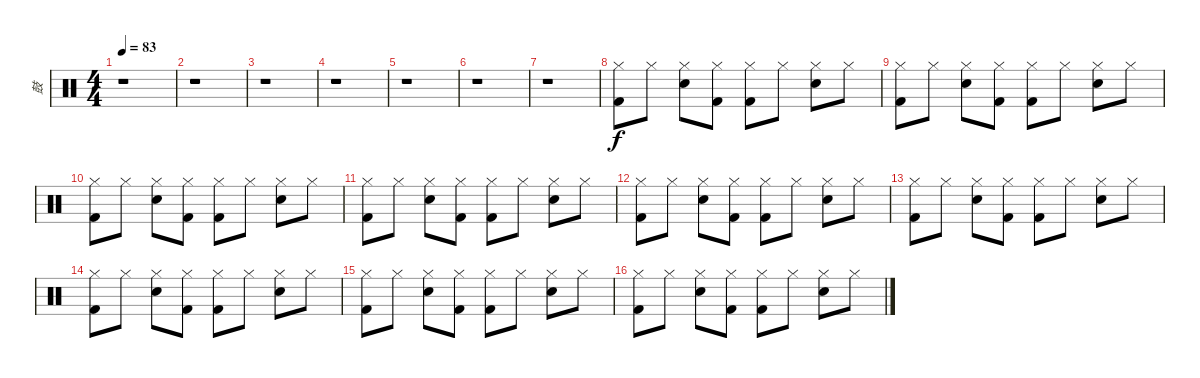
\track ("鼓" "鼓") {instrument percussion}
\staff {score}
\articulation defaults
\ts (4 4)
\tempo 83
\clef neutral
\ks c
r.1{dy f} |
r.1 |
r.1 |
r.1 |
r.1 |
r.1 |
r.1 |
("Hi-Hat (closed)" "Kick (hit) 2").8 "Hi-Hat (closed)".8 ("Snare (hit) 2" "Hi-Hat (closed)").8 ("Hi-Hat (closed)" "Kick (hit) 2").8 ("Hi-Hat (closed)" "Kick (hit) 2").8 "Hi-Hat (closed)".8 ("Snare (hit) 2" "Hi-Hat (closed)").8 "Hi-Hat (closed)".8 |
("Hi-Hat (closed)" "Kick (hit) 2").8 "Hi-Hat (closed)".8 ("Snare (hit) 2" "Hi-Hat (closed)").8 ("Hi-Hat (closed)" "Kick (hit) 2").8 ("Hi-Hat (closed)" "Kick (hit) 2").8 "Hi-Hat (closed)".8 ("Snare (hit) 2" "Hi-Hat (closed)").8 "Hi-Hat (closed)".8 |
("Hi-Hat (closed)" "Kick (hit) 2").8 "Hi-Hat (closed)".8 ("Snare (hit) 2" "Hi-Hat (closed)").8 ("Hi-Hat (closed)" "Kick (hit) 2").8 ("Hi-Hat (closed)" "Kick (hit) 2").8 "Hi-Hat (closed)".8 ("Snare (hit) 2" "Hi-Hat (closed)").8 "Hi-Hat (closed)".8 |
("Hi-Hat (closed)" "Kick (hit) 2").8 "Hi-Hat (closed)".8 ("Snare (hit) 2" "Hi-Hat (closed)").8 ("Hi-Hat (closed)" "Kick (hit) 2").8 ("Hi-Hat (closed)" "Kick (hit) 2").8 "Hi-Hat (closed)".8 ("Snare (hit) 2" "Hi-Hat (closed)").8 "Hi-Hat (closed)".8 |
("Kick (hit) 2" "Hi-Hat (closed)").8 "Hi-Hat (closed)".8 ("Hi-Hat (closed)" "Snare (hit) 2").8 ("Hi-Hat (closed)" "Kick (hit) 2").8 ("Kick (hit) 2" "Hi-Hat (closed)").8 "Hi-Hat (closed)".8 ("Hi-Hat (closed)" "Snare (hit) 2").8 "Hi-Hat (closed)".8 |
("Kick (hit) 2" "Hi-Hat (closed)").8 "Hi-Hat (closed)".8 ("Hi-Hat (closed)" "Snare (hit) 2").8 ("Hi-Hat (closed)" "Kick (hit) 2").8 ("Kick (hit) 2" "Hi-Hat (closed)").8 "Hi-Hat (closed)".8 ("Hi-Hat (closed)" "Snare (hit) 2").8 "Hi-Hat (closed)".8 |
("Kick (hit) 2" "Hi-Hat (closed)").8 "Hi-Hat (closed)".8 ("Hi-Hat (closed)" "Snare (hit) 2").8 ("Hi-Hat (closed)" "Kick (hit) 2").8 ("Kick (hit) 2" "Hi-Hat (closed)").8 "Hi-Hat (closed)".8 ("Hi-Hat (closed)" "Snare (hit) 2").8 "Hi-Hat (closed)".8 |
("Kick (hit) 2" "Hi-Hat (closed)").8 "Hi-Hat (closed)".8 ("Hi-Hat (closed)" "Snare (hit) 2").8 ("Hi-Hat (closed)" "Kick (hit) 2").8 ("Kick (hit) 2" "Hi-Hat (closed)").8 "Hi-Hat (closed)".8 ("Hi-Hat (closed)" "Snare (hit) 2").8 "Hi-Hat (closed)".8 |
("Kick (hit) 2" "Hi-Hat (closed)").8 "Hi-Hat (closed)".8 ("Hi-Hat (closed)" "Snare (hit) 2").8 ("Hi-Hat (closed)" "Kick (hit) 2").8 ("Kick (hit) 2" "Hi-Hat (closed)").8 "Hi-Hat (closed)".8 ("Hi-Hat (closed)" "Snare (hit) 2").8 "Hi-Hat (closed)".8
